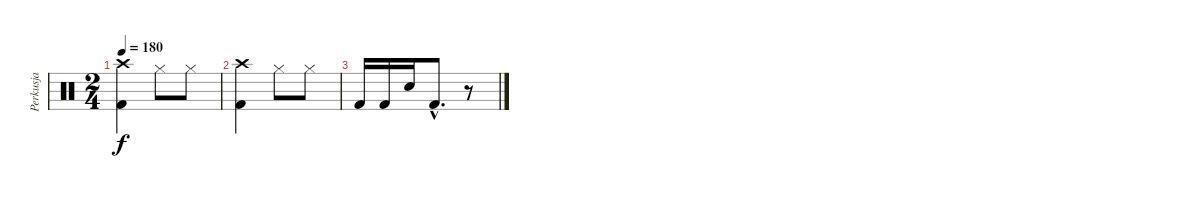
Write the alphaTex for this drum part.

\track ("Perkusja" "Perkusja") {instrument percussion}
\staff {score}
\articulation defaults
\ts (2 4)
\tempo 180
\clef neutral
\ks c
("Crash high (hit)" "Kick (hit) 2").4{dy f} "Hi-Hat (closed)".8 "Hi-Hat (closed)".8 |
("Crash high (hit)" "Kick (hit) 2").4 "Hi-Hat (closed)".8 "Hi-Hat (closed)".8 |
"Kick (hit) 2".16 "Kick (hit) 2".16 "Snare (hit) 2".16 "Kick (hit) 2"{hac}.8{d} r.8
